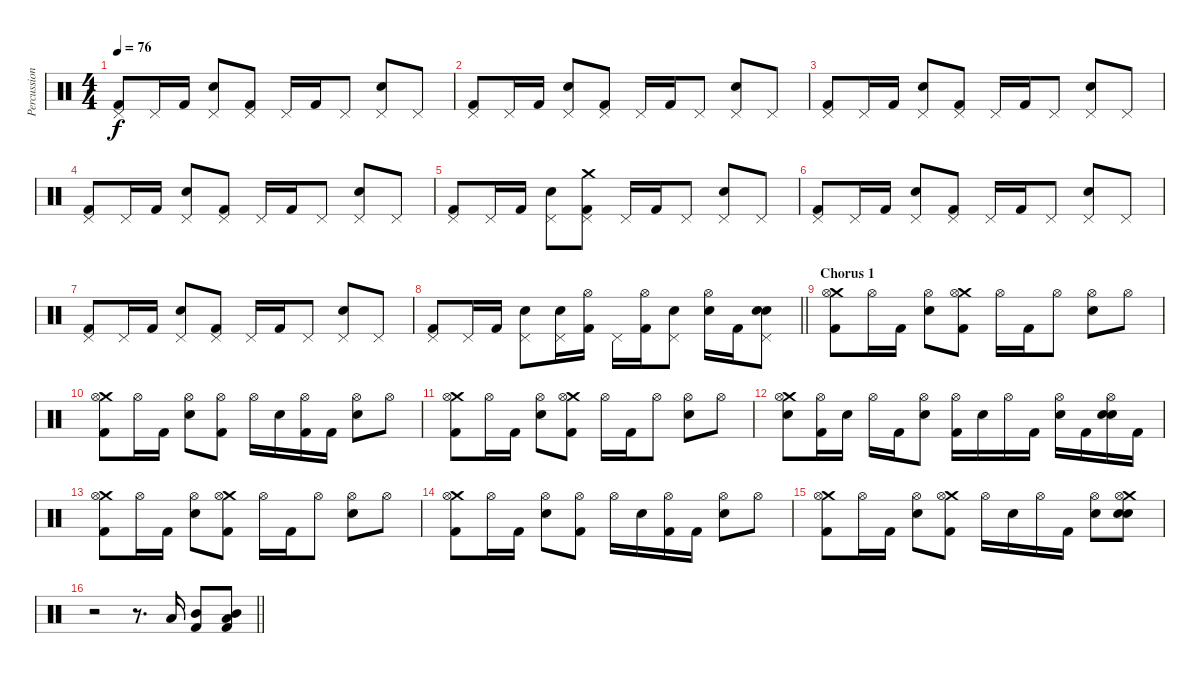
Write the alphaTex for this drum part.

\track ("Percussions" "Percussion") {instrument percussion}
\staff {score}
\articulation defaults
\ts (4 4)
\tempo 76
\clef neutral
\ks c
("Pedal Hi-Hat (hit)" "Kick (hit) 2").8{dy f} "Pedal Hi-Hat (hit)".16 "Kick (hit) 2".16 ("Pedal Hi-Hat (hit)" "Snare (hit) 2").8 ("Pedal Hi-Hat (hit)" "Kick (hit) 2").8 "Pedal Hi-Hat (hit)".16 "Kick (hit) 2".16 "Pedal Hi-Hat (hit)".8 ("Pedal Hi-Hat (hit)" "Snare (hit) 2").8 "Pedal Hi-Hat (hit)".8 |
("Pedal Hi-Hat (hit)" "Kick (hit) 2").8 "Pedal Hi-Hat (hit)".16 "Kick (hit) 2".16 ("Pedal Hi-Hat (hit)" "Snare (hit) 2").8 ("Pedal Hi-Hat (hit)" "Kick (hit) 2").8 "Pedal Hi-Hat (hit)".16 "Kick (hit) 2".16 "Pedal Hi-Hat (hit)".8 ("Pedal Hi-Hat (hit)" "Snare (hit) 2").8 "Pedal Hi-Hat (hit)".8 |
("Pedal Hi-Hat (hit)" "Kick (hit) 2").8 "Pedal Hi-Hat (hit)".16 "Kick (hit) 2".16 ("Pedal Hi-Hat (hit)" "Snare (hit) 2").8 ("Pedal Hi-Hat (hit)" "Kick (hit) 2").8 "Pedal Hi-Hat (hit)".16 "Kick (hit) 2".16 "Pedal Hi-Hat (hit)".8 ("Pedal Hi-Hat (hit)" "Snare (hit) 2").8 "Pedal Hi-Hat (hit)".8 |
("Pedal Hi-Hat (hit)" "Kick (hit) 2").8 "Pedal Hi-Hat (hit)".16 "Kick (hit) 2".16 ("Pedal Hi-Hat (hit)" "Snare (hit) 2").8 ("Pedal Hi-Hat (hit)" "Kick (hit) 2").8 "Pedal Hi-Hat (hit)".16 "Kick (hit) 2".16 "Pedal Hi-Hat (hit)".8 ("Pedal Hi-Hat (hit)" "Snare (hit) 2").8 "Pedal Hi-Hat (hit)".8 |
("Pedal Hi-Hat (hit)" "Kick (hit) 2").8 "Pedal Hi-Hat (hit)".16 "Kick (hit) 2".16 ("Pedal Hi-Hat (hit)" "Snare (hit) 2").8 ("Crash medium (hit)" "Pedal Hi-Hat (hit)" "Kick (hit) 2").8 "Pedal Hi-Hat (hit)".16 "Kick (hit) 2".16 "Pedal Hi-Hat (hit)".8 ("Pedal Hi-Hat (hit)" "Snare (hit) 2").8 "Pedal Hi-Hat (hit)".8 |
("Pedal Hi-Hat (hit)" "Kick (hit) 2").8 "Pedal Hi-Hat (hit)".16 "Kick (hit) 2".16 ("Pedal Hi-Hat (hit)" "Snare (hit) 2").8 ("Pedal Hi-Hat (hit)" "Kick (hit) 2").8 "Pedal Hi-Hat (hit)".16 "Kick (hit) 2".16 "Pedal Hi-Hat (hit)".8 ("Pedal Hi-Hat (hit)" "Snare (hit) 2").8 "Pedal Hi-Hat (hit)".8 |
("Pedal Hi-Hat (hit)" "Kick (hit) 2").8 "Pedal Hi-Hat (hit)".16 "Kick (hit) 2".16 ("Pedal Hi-Hat (hit)" "Snare (hit) 2").8 ("Pedal Hi-Hat (hit)" "Kick (hit) 2").8 "Pedal Hi-Hat (hit)".16 "Kick (hit) 2".16 "Pedal Hi-Hat (hit)".8 ("Pedal Hi-Hat (hit)" "Snare (hit) 2").8 "Pedal Hi-Hat (hit)".8 |
\barLineRight lightlight
("Pedal Hi-Hat (hit)" "Kick (hit) 2").8 "Pedal Hi-Hat (hit)".16 "Kick (hit) 2".16 ("Pedal Hi-Hat (hit)" "Snare (hit) 2").8 ("Pedal Hi-Hat (hit)" "Snare (hit) 2").16 ("Hi-Hat (open)" "Kick (hit) 2").16 "Pedal Hi-Hat (hit)".16 ("Hi-Hat (open)" "Kick (hit) 2").16 ("Pedal Hi-Hat (hit)" "Snare (hit) 2").8 ("Hi-Hat (open)" "Snare (hit) 2").16 "Kick (hit) 2".16 ("Pedal Hi-Hat (hit)" "Snare (hit) 2" "Electric Snare (hit)").8 |
\section ("" "Chorus 1")
("Crash medium (hit)" "Hi-Hat (open)" "Kick (hit) 2").8 "Hi-Hat (open)".16 "Kick (hit) 2".16 ("Hi-Hat (open)" "Snare (hit) 2").8 ("Crash medium (hit)" "Hi-Hat (open)" "Kick (hit) 2").8 "Hi-Hat (open)".16 "Kick (hit) 2".16 "Hi-Hat (open)".8 ("Hi-Hat (open)" "Snare (hit) 2").8 "Hi-Hat (open)".8 |
("Crash medium (hit)" "Hi-Hat (open)" "Kick (hit) 2").8 "Hi-Hat (open)".16 "Kick (hit) 2".16 ("Hi-Hat (open)" "Snare (hit) 2").8 ("Hi-Hat (open)" "Kick (hit) 2").8 "Hi-Hat (open)".16 "Snare (hit) 2".16 ("Hi-Hat (open)" "Kick (hit) 2").16 "Kick (hit) 2".16 ("Hi-Hat (open)" "Snare (hit) 2").8 "Hi-Hat (open)".8 |
("Crash medium (hit)" "Hi-Hat (open)" "Kick (hit) 2").8 "Hi-Hat (open)".16 "Kick (hit) 2".16 ("Hi-Hat (open)" "Snare (hit) 2").8 ("Crash medium (hit)" "Hi-Hat (open)" "Kick (hit) 2").8 "Hi-Hat (open)".16 "Kick (hit) 2".16 "Hi-Hat (open)".8 ("Hi-Hat (open)" "Snare (hit) 2").8 "Hi-Hat (open)".8 |
("Crash medium (hit)" "Hi-Hat (open)" "Snare (hit) 2").8 ("Hi-Hat (open)" "Kick (hit) 2").16 "Snare (hit) 2".16 "Hi-Hat (open)".16 "Kick (hit) 2".16 ("Hi-Hat (open)" "Snare (hit) 2").8 ("Hi-Hat (open)" "Kick (hit) 2").16 "Snare (hit) 2".16 "Hi-Hat (open)".16 "Kick (hit) 2".16 ("Hi-Hat (open)" "Snare (hit) 2").16 "Kick (hit) 2".16 ("Hi-Hat (open)" "Snare (hit) 2" "Electric Snare (hit)").16 "Kick (hit) 2".16 |
("Crash medium (hit)" "Hi-Hat (open)" "Kick (hit) 2").8 "Hi-Hat (open)".16 "Kick (hit) 2".16 ("Hi-Hat (open)" "Snare (hit) 2").8 ("Crash medium (hit)" "Hi-Hat (open)" "Kick (hit) 2").8 "Hi-Hat (open)".16 "Kick (hit) 2".16 "Hi-Hat (open)".8 ("Hi-Hat (open)" "Snare (hit) 2").8 "Hi-Hat (open)".8 |
("Crash medium (hit)" "Hi-Hat (open)" "Kick (hit) 2").8 "Hi-Hat (open)".16 "Kick (hit) 2".16 ("Hi-Hat (open)" "Snare (hit) 2").8 ("Hi-Hat (open)" "Kick (hit) 2").8 "Hi-Hat (open)".16 "Snare (hit) 2".16 ("Hi-Hat (open)" "Kick (hit) 2").16 "Kick (hit) 2".16 ("Hi-Hat (open)" "Snare (hit) 2").8 "Hi-Hat (open)".8 |
("Crash medium (hit)" "Hi-Hat (open)" "Kick (hit) 2").8 "Hi-Hat (open)".16 "Kick (hit) 2".16 ("Hi-Hat (open)" "Snare (hit) 2").8 ("Crash medium (hit)" "Hi-Hat (open)" "Kick (hit) 2").8 "Hi-Hat (open)".16 "Snare (hit) 2".16 "Hi-Hat (open)".16 "Kick (hit) 2".16 ("Hi-Hat (open)" "Snare (hit) 2").8 ("Crash medium (hit)" "Hi-Hat (open)" "Snare (hit) 2" "Electric Snare (hit)").8 |
\barLineRight lightlight
r.2 r.8{d} "Low Floor Tom (hit)".16 ("Mid Tom (hit)" "Kick (hit) 2").8 ("Low Floor Tom (hit)" "Mid Tom (hit)" "Kick (hit) 2").8
